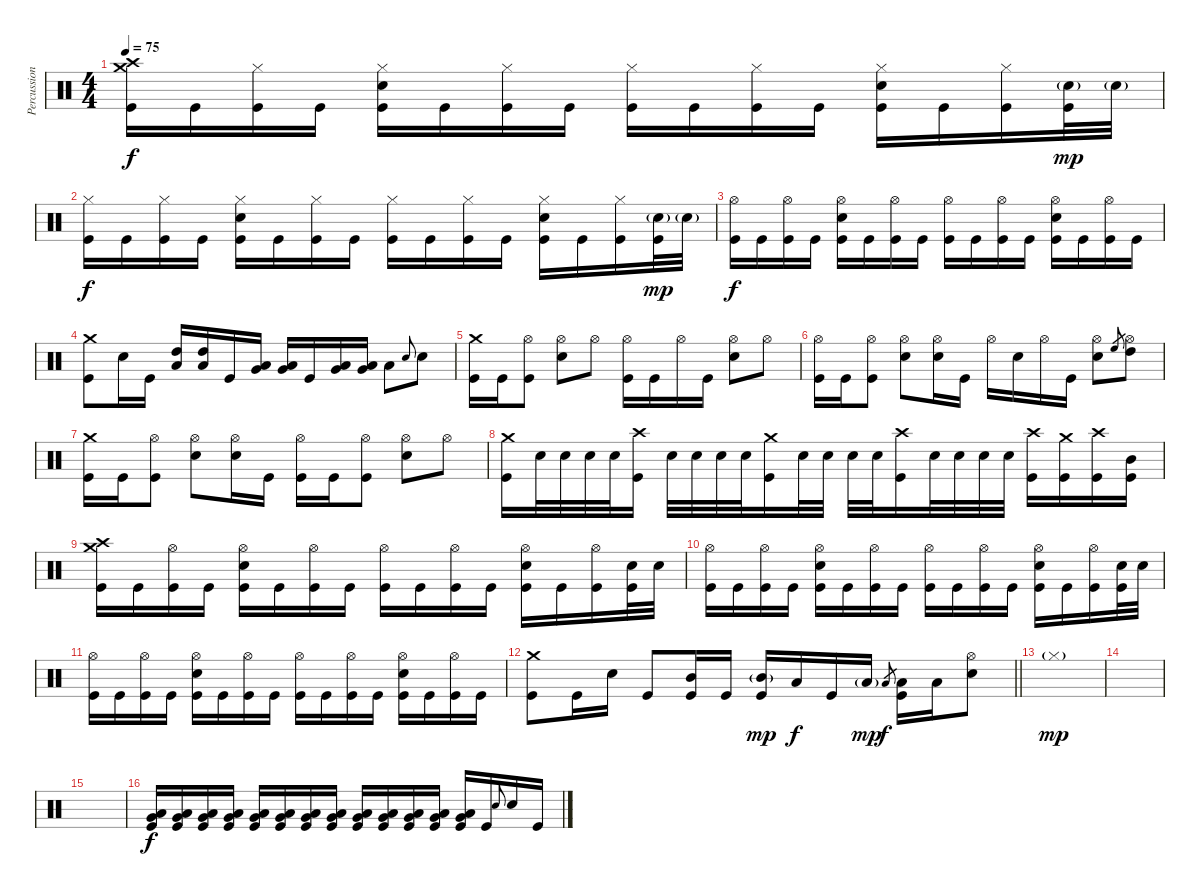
\track ("Percussion" "Percussion") {instrument percussion}
\staff {score}
\articulation defaults
\ts (4 4)
\tempo 75
\clef neutral
\ks c
("Crash high (hit)" "Crash medium (hit)" "Kick (hit)").16{dy f} "Kick (hit)".16 ("Hi-Hat (closed)" "Kick (hit)").16 "Kick (hit)".16 ("Hi-Hat (closed)" "Snare (hit) 2" "Kick (hit)").16 "Kick (hit)".16 ("Hi-Hat (closed)" "Kick (hit)").16 "Kick (hit)".16 ("Hi-Hat (closed)" "Kick (hit)").16 "Kick (hit)".16 ("Hi-Hat (closed)" "Kick (hit)").16 "Kick (hit)".16 ("Hi-Hat (closed)" "Snare (hit) 2" "Kick (hit)").16 "Kick (hit)".16 ("Hi-Hat (closed)" "Kick (hit)").16 ("Snare (hit) 2"{g} "Kick (hit)").32{dy mp} "Snare (hit) 2"{g}.32 |
("Hi-Hat (closed)" "Kick (hit)").16{dy f} "Kick (hit)".16 ("Hi-Hat (closed)" "Kick (hit)").16 "Kick (hit)".16 ("Hi-Hat (closed)" "Snare (hit) 2" "Kick (hit)").16 "Kick (hit)".16 ("Hi-Hat (closed)" "Kick (hit)").16 "Kick (hit)".16 ("Hi-Hat (closed)" "Kick (hit)").16 "Kick (hit)".16 ("Hi-Hat (closed)" "Kick (hit)").16 "Kick (hit)".16 ("Hi-Hat (closed)" "Snare (hit) 2" "Kick (hit)").16 "Kick (hit)".16 ("Hi-Hat (closed)" "Kick (hit)").16 ("Snare (hit) 2"{g} "Kick (hit)").32{dy mp} "Snare (hit) 2"{g}.32 |
("Hi-Hat (open)" "Kick (hit)").16{dy f} "Kick (hit)".16 ("Hi-Hat (open)" "Kick (hit)").16 "Kick (hit)".16 ("Hi-Hat (open)" "Snare (hit) 2" "Kick (hit)").16 "Kick (hit)".16 ("Hi-Hat (open)" "Kick (hit)").16 "Kick (hit)".16 ("Hi-Hat (open)" "Kick (hit)").16 "Kick (hit)".16 ("Hi-Hat (open)" "Kick (hit)").16 "Kick (hit)".16 ("Hi-Hat (open)" "Snare (hit) 2" "Kick (hit)").16 "Kick (hit)".16 ("Hi-Hat (open)" "Kick (hit)").16 "Kick (hit)".16 |
("Crash medium (hit)" "Kick (hit)").8 "Snare (hit) 2".16 "Kick (hit)".16 ("High Tom (hit)" "Low Tom (hit)").16 ("High Tom (hit)" "Low Tom (hit)").16 "Kick (hit)".16 ("Low Tom (hit)" "Very Low Tom (hit)").16 ("Low Tom (hit)" "Very Low Tom (hit)").16 "Kick (hit)".16 ("Very Low Tom (hit)" "Low Floor Tom (hit)").16 ("Very Low Tom (hit)" "Low Floor Tom (hit)").16 "Low Floor Tom (hit)".8 "Snare (hit) 2".8{gr onbeat} "Snare (hit) 2".8 |
("Crash medium (hit)" "Kick (hit)").16 "Kick (hit)".16 ("Hi-Hat (open)" "Kick (hit)").8 ("Hi-Hat (open)" "Snare (hit) 2").8 "Hi-Hat (open)".8 ("Hi-Hat (open)" "Kick (hit)").16 "Kick (hit)".16 "Hi-Hat (open)".16 "Kick (hit)".16 ("Hi-Hat (open)" "Snare (hit) 2").8 "Hi-Hat (open)".8 |
("Hi-Hat (open)" "Kick (hit)").16 "Kick (hit)".16 ("Hi-Hat (open)" "Kick (hit)").8 ("Hi-Hat (open)" "Snare (hit) 2").8 ("Hi-Hat (open)" "Snare (hit) 2").16 "Kick (hit)".16 "Hi-Hat (open)".16 "Snare (hit) 2".16 "Hi-Hat (open)".16 "Kick (hit)".16 ("Hi-Hat (open)" "Snare (hit) 2").8 "High Floor Tom (hit)".8{gr} ("Hi-Hat (open)" "High Tom (hit)").8 |
("Crash medium (hit)" "Kick (hit)").16 "Kick (hit)".16 ("Hi-Hat (open)" "Kick (hit)").8 ("Hi-Hat (open)" "Snare (hit) 2").8 ("Hi-Hat (open)" "Snare (hit) 2").16 "Kick (hit)".16 ("Hi-Hat (open)" "Kick (hit)").16 "Kick (hit)".16 ("Hi-Hat (open)" "Kick (hit)").8 ("Hi-Hat (open)" "Snare (hit) 2").8 "Hi-Hat (open)".8 |
("Crash medium (hit)" "Kick (hit)").16 "Snare (hit) 2".32 "Snare (hit) 2".32 "Snare (hit) 2".32 "Snare (hit) 2".32 ("Crash high (hit)" "Kick (hit)").16 "Snare (hit) 2".32 "Snare (hit) 2".32 "Snare (hit) 2".32 "Snare (hit) 2".32 ("Crash medium (hit)" "Kick (hit)").16 "Snare (hit) 2".32 "Snare (hit) 2".32 "Snare (hit) 2".32 "Snare (hit) 2".32 ("Crash high (hit)" "Kick (hit)").16 "Snare (hit) 2".32 "Snare (hit) 2".32 "Snare (hit) 2".32 "Snare (hit) 2".32 ("Crash high (hit)" "Kick (hit)").16 ("Crash medium (hit)" "Kick (hit)").16 ("Crash high (hit)" "Kick (hit)").16 ("Mid Tom (hit)" "Kick (hit)").16 |
("Crash high (hit)" "Crash medium (hit)" "Kick (hit)").16 "Kick (hit)".16 ("Hi-Hat (open)" "Kick (hit)").16 "Kick (hit)".16 ("Hi-Hat (open)" "Snare (hit) 2" "Kick (hit)").16 "Kick (hit)".16 ("Hi-Hat (open)" "Kick (hit)").16 "Kick (hit)".16 ("Hi-Hat (open)" "Kick (hit)").16 "Kick (hit)".16 ("Hi-Hat (open)" "Kick (hit)").16 "Kick (hit)".16 ("Hi-Hat (open)" "Snare (hit) 2" "Kick (hit)").16 "Kick (hit)".16 ("Hi-Hat (open)" "Kick (hit)").16 ("Snare (hit) 2" "Kick (hit)").32 "Snare (hit) 2".32 |
("Hi-Hat (open)" "Kick (hit)").16 "Kick (hit)".16 ("Hi-Hat (open)" "Kick (hit)").16 "Kick (hit)".16 ("Hi-Hat (open)" "Snare (hit) 2" "Kick (hit)").16 "Kick (hit)".16 ("Hi-Hat (open)" "Kick (hit)").16 "Kick (hit)".16 ("Hi-Hat (open)" "Kick (hit)").16 "Kick (hit)".16 ("Hi-Hat (open)" "Kick (hit)").16 "Kick (hit)".16 ("Hi-Hat (open)" "Snare (hit) 2" "Kick (hit)").16 "Kick (hit)".16 ("Hi-Hat (open)" "Kick (hit)").16 ("Snare (hit) 2" "Kick (hit)").32 "Snare (hit) 2".32 |
("Hi-Hat (open)" "Kick (hit)").16 "Kick (hit)".16 ("Hi-Hat (open)" "Kick (hit)").16 "Kick (hit)".16 ("Hi-Hat (open)" "Snare (hit) 2" "Kick (hit)").16 "Kick (hit)".16 ("Hi-Hat (open)" "Kick (hit)").16 "Kick (hit)".16 ("Hi-Hat (open)" "Kick (hit)").16 "Kick (hit)".16 ("Hi-Hat (open)" "Kick (hit)").16 "Kick (hit)".16 ("Hi-Hat (open)" "Snare (hit) 2" "Kick (hit)").16 "Kick (hit)".16 ("Hi-Hat (open)" "Kick (hit)").16 "Kick (hit)".16 |
\barLineRight lightlight
("Crash medium (hit)" "Kick (hit)").8 "Kick (hit)".16 "Snare (hit) 2".16 "Kick (hit)".8 ("Mid Tom (hit)" "Kick (hit)").16 "Kick (hit)".16 ("Mid Tom (hit)"{g} "Kick (hit)").16{dy mp} "Low Tom (hit)".16{dy f} "Kick (hit)".16 "Low Tom (hit)"{g}.16{dy mp} "Low Floor Tom (hit)".8{gr dy f} ("Low Floor Tom (hit)" "Kick (hit)").16 "Low Floor Tom (hit)".16 ("Hi-Hat (open)" "Snare (hit) 2").8 |
"Hi-Hat (closed)"{g}.1{dy mp} |
|
|
("Very Low Tom (hit)" "Low Floor Tom (hit)" "Kick (hit)").16{dy f volume 13} ("Very Low Tom (hit)" "Low Floor Tom (hit)" "Kick (hit)").16 ("Very Low Tom (hit)" "Low Floor Tom (hit)" "Kick (hit)").16 ("Very Low Tom (hit)" "Low Floor Tom (hit)" "Kick (hit)").16 ("Very Low Tom (hit)" "Low Floor Tom (hit)" "Kick (hit)").16 ("Very Low Tom (hit)" "Low Floor Tom (hit)" "Kick (hit)").16 ("Very Low Tom (hit)" "Low Floor Tom (hit)" "Kick (hit)").16 ("Very Low Tom (hit)" "Low Floor Tom (hit)" "Kick (hit)").16 ("Very Low Tom (hit)" "Low Floor Tom (hit)" "Kick (hit)").16 ("Very Low Tom (hit)" "Low Floor Tom (hit)" "Kick (hit)").16 ("Very Low Tom (hit)" "Low Floor Tom (hit)" "Kick (hit)").16 ("Very Low Tom (hit)" "Low Floor Tom (hit)" "Kick (hit)").16 ("Very Low Tom (hit)" "Low Floor Tom (hit)" "Kick (hit)").16 "Kick (hit)".16 "Snare (hit) 2".8{gr onbeat} "Snare (hit) 2".16 "Kick (hit)".16
